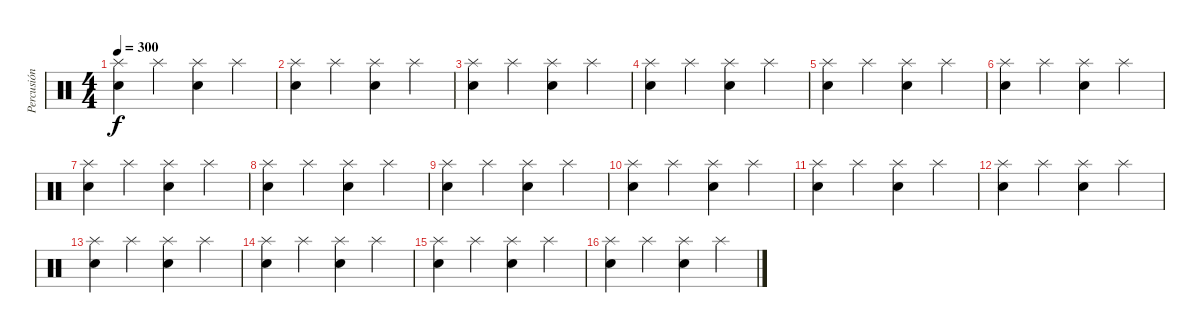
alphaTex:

\track ("Percusión" "Percusión") {instrument percussion}
\staff {score}
\articulation defaults
\ts (4 4)
\tempo 300
\clef neutral
\ks c
("Electric Snare (hit)" "Splash (hit)").4{dy f} "Splash (hit)".4 ("Electric Snare (hit)" "Splash (hit)").4 "Splash (hit)".4 |
("Electric Snare (hit)" "Splash (hit)").4 "Splash (hit)".4 ("Electric Snare (hit)" "Splash (hit)").4 "Splash (hit)".4 |
("Electric Snare (hit)" "Splash (hit)").4 "Splash (hit)".4 ("Electric Snare (hit)" "Splash (hit)").4 "Splash (hit)".4 |
("Electric Snare (hit)" "Splash (hit)").4 "Splash (hit)".4 ("Electric Snare (hit)" "Splash (hit)").4 "Splash (hit)".4 |
("Electric Snare (hit)" "Splash (hit)").4 "Splash (hit)".4 ("Electric Snare (hit)" "Splash (hit)").4 "Splash (hit)".4 |
("Electric Snare (hit)" "Splash (hit)").4 "Splash (hit)".4 ("Electric Snare (hit)" "Splash (hit)").4 "Splash (hit)".4 |
("Electric Snare (hit)" "Splash (hit)").4 "Splash (hit)".4 ("Electric Snare (hit)" "Splash (hit)").4 "Splash (hit)".4 |
("Electric Snare (hit)" "Splash (hit)").4 "Splash (hit)".4 ("Electric Snare (hit)" "Splash (hit)").4 "Splash (hit)".4 |
("Electric Snare (hit)" "Splash (hit)").4 "Splash (hit)".4 ("Electric Snare (hit)" "Splash (hit)").4 "Splash (hit)".4 |
("Electric Snare (hit)" "Splash (hit)").4 "Splash (hit)".4 ("Electric Snare (hit)" "Splash (hit)").4 "Splash (hit)".4 |
("Electric Snare (hit)" "Splash (hit)").4 "Splash (hit)".4 ("Electric Snare (hit)" "Splash (hit)").4 "Splash (hit)".4 |
("Electric Snare (hit)" "Splash (hit)").4 "Splash (hit)".4 ("Electric Snare (hit)" "Splash (hit)").4 "Splash (hit)".4 |
("Electric Snare (hit)" "Splash (hit)").4 "Splash (hit)".4 ("Electric Snare (hit)" "Splash (hit)").4 "Splash (hit)".4 |
("Electric Snare (hit)" "Splash (hit)").4 "Splash (hit)".4 ("Electric Snare (hit)" "Splash (hit)").4 "Splash (hit)".4 |
("Electric Snare (hit)" "Splash (hit)").4 "Splash (hit)".4 ("Electric Snare (hit)" "Splash (hit)").4 "Splash (hit)".4 |
("Electric Snare (hit)" "Splash (hit)").4 "Splash (hit)".4 ("Electric Snare (hit)" "Splash (hit)").4 "Splash (hit)".4
